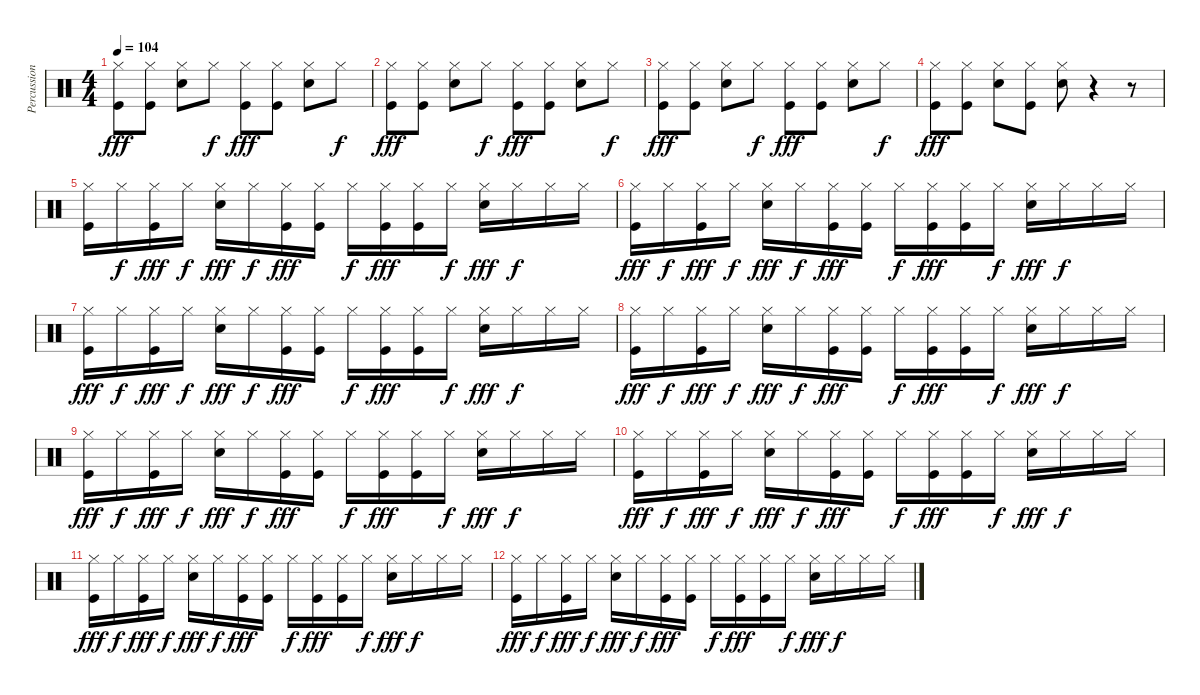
\track ("Percussion" "Percussion") {instrument percussion}
\staff {score}
\articulation defaults
\ts (4 4)
\tempo 104
\clef neutral
\ks c
("Kick (hit)" "Hi-Hat (closed)").8{dy fff} ("Kick (hit)" "Hi-Hat (closed)").8 ("Snare (hit) 2" "Hi-Hat (closed)").8 "Hi-Hat (closed)".8{dy f} ("Kick (hit)" "Hi-Hat (closed)").8{dy fff} ("Kick (hit)" "Hi-Hat (closed)").8 ("Snare (hit) 2" "Hi-Hat (closed)").8 "Hi-Hat (closed)".8{dy f} |
("Kick (hit)" "Hi-Hat (closed)").8{dy fff} ("Kick (hit)" "Hi-Hat (closed)").8 ("Snare (hit) 2" "Hi-Hat (closed)").8 "Hi-Hat (closed)".8{dy f} ("Kick (hit)" "Hi-Hat (closed)").8{dy fff} ("Kick (hit)" "Hi-Hat (closed)").8 ("Snare (hit) 2" "Hi-Hat (closed)").8 "Hi-Hat (closed)".8{dy f} |
("Kick (hit)" "Hi-Hat (closed)").8{dy fff} ("Kick (hit)" "Hi-Hat (closed)").8 ("Snare (hit) 2" "Hi-Hat (closed)").8 "Hi-Hat (closed)".8{dy f} ("Kick (hit)" "Hi-Hat (closed)").8{dy fff} ("Kick (hit)" "Hi-Hat (closed)").8 ("Snare (hit) 2" "Hi-Hat (closed)").8 "Hi-Hat (closed)".8{dy f} |
("Kick (hit)" "Hi-Hat (closed)").8{dy fff} ("Kick (hit)" "Hi-Hat (closed)").8 ("Snare (hit) 2" "Hi-Hat (closed)").8 ("Kick (hit)" "Hi-Hat (closed)").8 ("Snare (hit) 2" "Hi-Hat (closed)").8 r.4 r.8 |
("Kick (hit)" "Hi-Hat (closed)").16 "Hi-Hat (closed)".16{dy f} ("Kick (hit)" "Hi-Hat (closed)").16{dy fff} "Hi-Hat (closed)".16{dy f} ("Snare (hit) 2" "Hi-Hat (closed)").16{dy fff} "Hi-Hat (closed)".16{dy f} ("Kick (hit)" "Hi-Hat (closed)").16{dy fff} ("Kick (hit)" "Hi-Hat (closed)").16 "Hi-Hat (closed)".16{dy f} ("Kick (hit)" "Hi-Hat (closed)").16{dy fff} ("Kick (hit)" "Hi-Hat (closed)").16 "Hi-Hat (closed)".16{dy f} ("Snare (hit) 2" "Hi-Hat (closed)").16{dy fff} "Hi-Hat (closed)".16{dy f} "Hi-Hat (closed)".16 "Hi-Hat (closed)".16 |
("Kick (hit)" "Hi-Hat (closed)").16{dy fff} "Hi-Hat (closed)".16{dy f} ("Kick (hit)" "Hi-Hat (closed)").16{dy fff} "Hi-Hat (closed)".16{dy f} ("Snare (hit) 2" "Hi-Hat (closed)").16{dy fff} "Hi-Hat (closed)".16{dy f} ("Kick (hit)" "Hi-Hat (closed)").16{dy fff} ("Kick (hit)" "Hi-Hat (closed)").16 "Hi-Hat (closed)".16{dy f} ("Kick (hit)" "Hi-Hat (closed)").16{dy fff} ("Kick (hit)" "Hi-Hat (closed)").16 "Hi-Hat (closed)".16{dy f} ("Snare (hit) 2" "Hi-Hat (closed)").16{dy fff} "Hi-Hat (closed)".16{dy f} "Hi-Hat (closed)".16 "Hi-Hat (closed)".16 |
("Kick (hit)" "Hi-Hat (closed)").16{dy fff} "Hi-Hat (closed)".16{dy f} ("Kick (hit)" "Hi-Hat (closed)").16{dy fff} "Hi-Hat (closed)".16{dy f} ("Snare (hit) 2" "Hi-Hat (closed)").16{dy fff} "Hi-Hat (closed)".16{dy f} ("Kick (hit)" "Hi-Hat (closed)").16{dy fff} ("Kick (hit)" "Hi-Hat (closed)").16 "Hi-Hat (closed)".16{dy f} ("Kick (hit)" "Hi-Hat (closed)").16{dy fff} ("Kick (hit)" "Hi-Hat (closed)").16 "Hi-Hat (closed)".16{dy f} ("Snare (hit) 2" "Hi-Hat (closed)").16{dy fff} "Hi-Hat (closed)".16{dy f} "Hi-Hat (closed)".16 "Hi-Hat (closed)".16 |
("Kick (hit)" "Hi-Hat (closed)").16{dy fff} "Hi-Hat (closed)".16{dy f} ("Kick (hit)" "Hi-Hat (closed)").16{dy fff} "Hi-Hat (closed)".16{dy f} ("Snare (hit) 2" "Hi-Hat (closed)").16{dy fff} "Hi-Hat (closed)".16{dy f} ("Kick (hit)" "Hi-Hat (closed)").16{dy fff} ("Kick (hit)" "Hi-Hat (closed)").16 "Hi-Hat (closed)".16{dy f} ("Kick (hit)" "Hi-Hat (closed)").16{dy fff} ("Kick (hit)" "Hi-Hat (closed)").16 "Hi-Hat (closed)".16{dy f} ("Snare (hit) 2" "Hi-Hat (closed)").16{dy fff} "Hi-Hat (closed)".16{dy f} "Hi-Hat (closed)".16 "Hi-Hat (closed)".16 |
("Kick (hit)" "Hi-Hat (closed)").16{dy fff} "Hi-Hat (closed)".16{dy f} ("Kick (hit)" "Hi-Hat (closed)").16{dy fff} "Hi-Hat (closed)".16{dy f} ("Snare (hit) 2" "Hi-Hat (closed)").16{dy fff} "Hi-Hat (closed)".16{dy f} ("Kick (hit)" "Hi-Hat (closed)").16{dy fff} ("Kick (hit)" "Hi-Hat (closed)").16 "Hi-Hat (closed)".16{dy f} ("Kick (hit)" "Hi-Hat (closed)").16{dy fff} ("Kick (hit)" "Hi-Hat (closed)").16 "Hi-Hat (closed)".16{dy f} ("Snare (hit) 2" "Hi-Hat (closed)").16{dy fff} "Hi-Hat (closed)".16{dy f} "Hi-Hat (closed)".16 "Hi-Hat (closed)".16 |
("Kick (hit)" "Hi-Hat (closed)").16{dy fff} "Hi-Hat (closed)".16{dy f} ("Kick (hit)" "Hi-Hat (closed)").16{dy fff} "Hi-Hat (closed)".16{dy f} ("Snare (hit) 2" "Hi-Hat (closed)").16{dy fff} "Hi-Hat (closed)".16{dy f} ("Kick (hit)" "Hi-Hat (closed)").16{dy fff} ("Kick (hit)" "Hi-Hat (closed)").16 "Hi-Hat (closed)".16{dy f} ("Kick (hit)" "Hi-Hat (closed)").16{dy fff} ("Kick (hit)" "Hi-Hat (closed)").16 "Hi-Hat (closed)".16{dy f} ("Snare (hit) 2" "Hi-Hat (closed)").16{dy fff} "Hi-Hat (closed)".16{dy f} "Hi-Hat (closed)".16 "Hi-Hat (closed)".16 |
("Kick (hit)" "Hi-Hat (closed)").16{dy fff} "Hi-Hat (closed)".16{dy f} ("Kick (hit)" "Hi-Hat (closed)").16{dy fff} "Hi-Hat (closed)".16{dy f} ("Snare (hit) 2" "Hi-Hat (closed)").16{dy fff} "Hi-Hat (closed)".16{dy f} ("Kick (hit)" "Hi-Hat (closed)").16{dy fff} ("Kick (hit)" "Hi-Hat (closed)").16 "Hi-Hat (closed)".16{dy f} ("Kick (hit)" "Hi-Hat (closed)").16{dy fff} ("Kick (hit)" "Hi-Hat (closed)").16 "Hi-Hat (closed)".16{dy f} ("Snare (hit) 2" "Hi-Hat (closed)").16{dy fff} "Hi-Hat (closed)".16{dy f} "Hi-Hat (closed)".16 "Hi-Hat (closed)".16 |
("Kick (hit)" "Hi-Hat (closed)").16{dy fff} "Hi-Hat (closed)".16{dy f} ("Kick (hit)" "Hi-Hat (closed)").16{dy fff} "Hi-Hat (closed)".16{dy f} ("Snare (hit) 2" "Hi-Hat (closed)").16{dy fff} "Hi-Hat (closed)".16{dy f} ("Kick (hit)" "Hi-Hat (closed)").16{dy fff} ("Kick (hit)" "Hi-Hat (closed)").16 "Hi-Hat (closed)".16{dy f} ("Kick (hit)" "Hi-Hat (closed)").16{dy fff} ("Kick (hit)" "Hi-Hat (closed)").16 "Hi-Hat (closed)".16{dy f} ("Snare (hit) 2" "Hi-Hat (closed)").16{dy fff} "Hi-Hat (closed)".16{dy f} "Hi-Hat (closed)".16 "Hi-Hat (closed)".16
